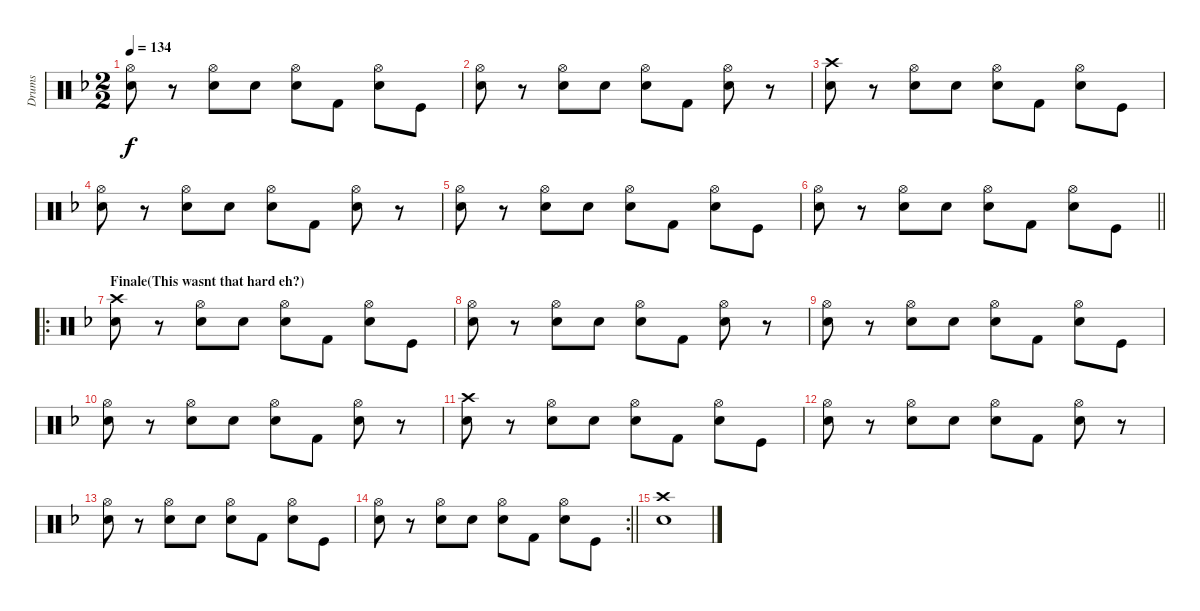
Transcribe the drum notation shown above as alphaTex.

\track ("Drums" "Drums") {instrument percussion}
\staff {score}
\articulation defaults
\ts (2 2)
\tempo 134
\clef neutral
\ks f
("Snare (hit) 2" "Hi-Hat (open)").8{dy f} r.8 ("Snare (hit) 2" "Hi-Hat (open)").8 "Electric Snare (hit)".8 ("Snare (hit) 2" "Hi-Hat (open)").8 "Kick (hit) 2".8 ("Snare (hit) 2" "Hi-Hat (open)").8 "Kick (hit)".8 |
("Snare (hit) 2" "Hi-Hat (open)").8 r.8 ("Snare (hit) 2" "Hi-Hat (open)").8 "Electric Snare (hit)".8 ("Snare (hit) 2" "Hi-Hat (open)").8 "Kick (hit) 2".8 ("Snare (hit) 2" "Hi-Hat (open)").8 r.8 |
("Snare (hit) 2" "Crash high (hit)").8 r.8 ("Snare (hit) 2" "Hi-Hat (open)").8 "Electric Snare (hit)".8 ("Snare (hit) 2" "Hi-Hat (open)").8 "Kick (hit) 2".8 ("Snare (hit) 2" "Hi-Hat (open)").8 "Kick (hit)".8 |
("Snare (hit) 2" "Hi-Hat (open)").8 r.8 ("Snare (hit) 2" "Hi-Hat (open)").8 "Electric Snare (hit)".8 ("Snare (hit) 2" "Hi-Hat (open)").8 "Kick (hit) 2".8 ("Snare (hit) 2" "Hi-Hat (open)").8 r.8 |
("Snare (hit) 2" "Hi-Hat (open)").8 r.8 ("Snare (hit) 2" "Hi-Hat (open)").8 "Electric Snare (hit)".8 ("Snare (hit) 2" "Hi-Hat (open)").8 "Kick (hit) 2".8 ("Snare (hit) 2" "Hi-Hat (open)").8 "Kick (hit)".8 |
\barLineRight lightlight
("Snare (hit) 2" "Hi-Hat (open)").8 r.8 ("Snare (hit) 2" "Hi-Hat (open)").8 "Electric Snare (hit)".8 ("Snare (hit) 2" "Hi-Hat (open)").8 "Kick (hit) 2".8 ("Snare (hit) 2" "Hi-Hat (open)").8 "Kick (hit)".8 |
\ro
\section ("" "Finale(This wasnt that hard eh?)")
("Snare (hit) 2" "Crash high (hit)").8 r.8 ("Snare (hit) 2" "Hi-Hat (open)").8 "Electric Snare (hit)".8 ("Snare (hit) 2" "Hi-Hat (open)").8 "Kick (hit) 2".8 ("Snare (hit) 2" "Hi-Hat (open)").8 "Kick (hit)".8 |
("Snare (hit) 2" "Hi-Hat (open)").8 r.8 ("Snare (hit) 2" "Hi-Hat (open)").8 "Electric Snare (hit)".8 ("Snare (hit) 2" "Hi-Hat (open)").8 "Kick (hit) 2".8 ("Snare (hit) 2" "Hi-Hat (open)").8 r.8 |
("Snare (hit) 2" "Hi-Hat (open)").8 r.8 ("Snare (hit) 2" "Hi-Hat (open)").8 "Electric Snare (hit)".8 ("Snare (hit) 2" "Hi-Hat (open)").8 "Kick (hit) 2".8 ("Snare (hit) 2" "Hi-Hat (open)").8 "Kick (hit)".8 |
("Snare (hit) 2" "Hi-Hat (open)").8 r.8 ("Snare (hit) 2" "Hi-Hat (open)").8 "Electric Snare (hit)".8 ("Snare (hit) 2" "Hi-Hat (open)").8 "Kick (hit) 2".8 ("Snare (hit) 2" "Hi-Hat (open)").8 r.8 |
("Snare (hit) 2" "Crash high (hit)").8 r.8 ("Snare (hit) 2" "Hi-Hat (open)").8 "Electric Snare (hit)".8 ("Snare (hit) 2" "Hi-Hat (open)").8 "Kick (hit) 2".8 ("Snare (hit) 2" "Hi-Hat (open)").8 "Kick (hit)".8 |
("Snare (hit) 2" "Hi-Hat (open)").8 r.8 ("Snare (hit) 2" "Hi-Hat (open)").8 "Electric Snare (hit)".8 ("Snare (hit) 2" "Hi-Hat (open)").8 "Kick (hit) 2".8 ("Snare (hit) 2" "Hi-Hat (open)").8 r.8 |
("Snare (hit) 2" "Hi-Hat (open)").8 r.8 ("Snare (hit) 2" "Hi-Hat (open)").8 "Electric Snare (hit)".8 ("Snare (hit) 2" "Hi-Hat (open)").8 "Kick (hit) 2".8 ("Snare (hit) 2" "Hi-Hat (open)").8 "Kick (hit)".8 |
\rc 2
\barLineRight lightlight
("Snare (hit) 2" "Hi-Hat (open)").8 r.8 ("Snare (hit) 2" "Hi-Hat (open)").8 "Electric Snare (hit)".8 ("Snare (hit) 2" "Hi-Hat (open)").8 "Kick (hit) 2".8 ("Snare (hit) 2" "Hi-Hat (open)").8 "Kick (hit)".8 |
("Snare (hit) 2" "Crash high (hit)").1
